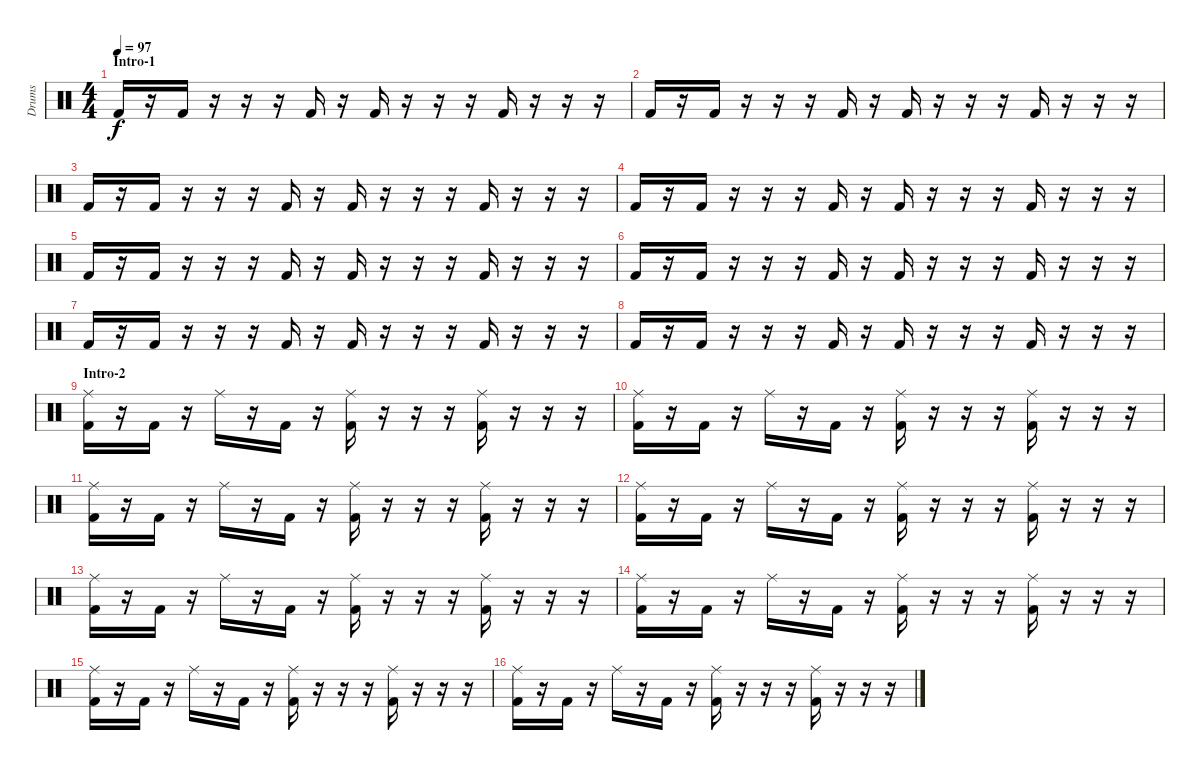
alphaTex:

\track ("Drums" "Drums") {instrument percussion}
\staff {score}
\articulation defaults
\ts (4 4)
\section ("" "Intro-1")
\tempo 97
\clef neutral
\ks c "Kick (hit) 2".16{dy f}
r.16 "Kick (hit) 2".16 r.16 r.16 r.16 "Kick (hit) 2".16 r.16 "Kick (hit) 2".16 r.16 r.16 r.16 "Kick (hit) 2".16 r.16 r.16 r.16 |
"Kick (hit) 2".16 r.16 "Kick (hit) 2".16 r.16 r.16 r.16 "Kick (hit) 2".16 r.16 "Kick (hit) 2".16 r.16 r.16 r.16 "Kick (hit) 2".16 r.16 r.16 r.16 |
"Kick (hit) 2".16 r.16 "Kick (hit) 2".16 r.16 r.16 r.16 "Kick (hit) 2".16 r.16 "Kick (hit) 2".16 r.16 r.16 r.16 "Kick (hit) 2".16 r.16 r.16 r.16 |
"Kick (hit) 2".16 r.16 "Kick (hit) 2".16 r.16 r.16 r.16 "Kick (hit) 2".16 r.16 "Kick (hit) 2".16 r.16 r.16 r.16 "Kick (hit) 2".16 r.16 r.16 r.16 |
"Kick (hit) 2".16 r.16 "Kick (hit) 2".16 r.16 r.16 r.16 "Kick (hit) 2".16 r.16 "Kick (hit) 2".16 r.16 r.16 r.16 "Kick (hit) 2".16 r.16 r.16 r.16 |
"Kick (hit) 2".16 r.16 "Kick (hit) 2".16 r.16 r.16 r.16 "Kick (hit) 2".16 r.16 "Kick (hit) 2".16 r.16 r.16 r.16 "Kick (hit) 2".16 r.16 r.16 r.16 |
"Kick (hit) 2".16 r.16 "Kick (hit) 2".16 r.16 r.16 r.16 "Kick (hit) 2".16 r.16 "Kick (hit) 2".16 r.16 r.16 r.16 "Kick (hit) 2".16 r.16 r.16 r.16 |
"Kick (hit) 2".16 r.16 "Kick (hit) 2".16 r.16 r.16 r.16 "Kick (hit) 2".16 r.16 "Kick (hit) 2".16 r.16 r.16 r.16 "Kick (hit) 2".16 r.16 r.16 r.16 |
\section ("" "Intro-2")
("Kick (hit) 2" "Ride (middle)").16 r.16 "Kick (hit) 2".16 r.16 "Ride (middle)".16 r.16 "Kick (hit) 2".16 r.16 ("Kick (hit) 2" "Ride (middle)").16 r.16 r.16 r.16 ("Kick (hit) 2" "Ride (middle)").16 r.16 r.16 r.16 |
("Kick (hit) 2" "Ride (middle)").16 r.16 "Kick (hit) 2".16 r.16 "Ride (middle)".16 r.16 "Kick (hit) 2".16 r.16 ("Kick (hit) 2" "Ride (middle)").16 r.16 r.16 r.16 ("Kick (hit) 2" "Ride (middle)").16 r.16 r.16 r.16 |
("Kick (hit) 2" "Ride (middle)").16 r.16 "Kick (hit) 2".16 r.16 "Ride (middle)".16 r.16 "Kick (hit) 2".16 r.16 ("Kick (hit) 2" "Ride (middle)").16 r.16 r.16 r.16 ("Kick (hit) 2" "Ride (middle)").16 r.16 r.16 r.16 |
("Kick (hit) 2" "Ride (middle)").16 r.16 "Kick (hit) 2".16 r.16 "Ride (middle)".16 r.16 "Kick (hit) 2".16 r.16 ("Kick (hit) 2" "Ride (middle)").16 r.16 r.16 r.16 ("Kick (hit) 2" "Ride (middle)").16 r.16 r.16 r.16 |
("Kick (hit) 2" "Ride (middle)").16 r.16 "Kick (hit) 2".16 r.16 "Ride (middle)".16 r.16 "Kick (hit) 2".16 r.16 ("Kick (hit) 2" "Ride (middle)").16 r.16 r.16 r.16 ("Kick (hit) 2" "Ride (middle)").16 r.16 r.16 r.16 |
("Kick (hit) 2" "Ride (middle)").16 r.16 "Kick (hit) 2".16 r.16 "Ride (middle)".16 r.16 "Kick (hit) 2".16 r.16 ("Kick (hit) 2" "Ride (middle)").16 r.16 r.16 r.16 ("Kick (hit) 2" "Ride (middle)").16 r.16 r.16 r.16 |
("Kick (hit) 2" "Ride (middle)").16 r.16 "Kick (hit) 2".16 r.16 "Ride (middle)".16 r.16 "Kick (hit) 2".16 r.16 ("Kick (hit) 2" "Ride (middle)").16 r.16 r.16 r.16 ("Kick (hit) 2" "Ride (middle)").16 r.16 r.16 r.16 |
("Kick (hit) 2" "Ride (middle)").16 r.16 "Kick (hit) 2".16 r.16 "Ride (middle)".16 r.16 "Kick (hit) 2".16 r.16 ("Kick (hit) 2" "Ride (middle)").16 r.16 r.16 r.16 ("Kick (hit) 2" "Ride (middle)").16 r.16 r.16 r.16
